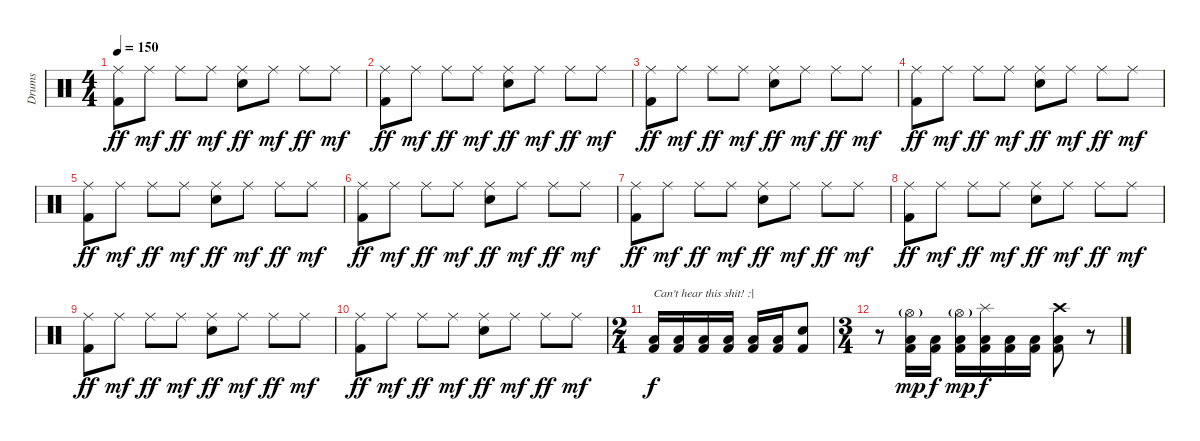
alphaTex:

\track ("Drums" "Drums") {instrument percussion}
\staff {score}
\articulation defaults
\ts (4 4)
\tempo 150
\clef neutral
\ks c
("Ride (middle)" "Kick (hit) 2").8{dy ff} "Ride (middle)".8{dy mf} "Ride (middle)".8{dy ff} "Ride (middle)".8{dy mf} ("Ride (middle)" "Electric Snare (hit)").8{dy ff} "Ride (middle)".8{dy mf} "Ride (middle)".8{dy ff} "Ride (middle)".8{dy mf} |
("Ride (middle)" "Kick (hit) 2").8{dy ff} "Ride (middle)".8{dy mf} "Ride (middle)".8{dy ff} "Ride (middle)".8{dy mf} ("Ride (middle)" "Electric Snare (hit)").8{dy ff} "Ride (middle)".8{dy mf} "Ride (middle)".8{dy ff} "Ride (middle)".8{dy mf} |
("Ride (middle)" "Kick (hit) 2").8{dy ff} "Ride (middle)".8{dy mf} "Ride (middle)".8{dy ff} "Ride (middle)".8{dy mf} ("Ride (middle)" "Electric Snare (hit)").8{dy ff} "Ride (middle)".8{dy mf} "Ride (middle)".8{dy ff} "Ride (middle)".8{dy mf} |
("Ride (middle)" "Kick (hit) 2").8{dy ff} "Ride (middle)".8{dy mf} "Ride (middle)".8{dy ff} "Ride (middle)".8{dy mf} ("Ride (middle)" "Electric Snare (hit)").8{dy ff} "Ride (middle)".8{dy mf} "Ride (middle)".8{dy ff} "Ride (middle)".8{dy mf} |
("Ride (middle)" "Kick (hit) 2").8{dy ff} "Ride (middle)".8{dy mf} "Ride (middle)".8{dy ff} "Ride (middle)".8{dy mf} ("Ride (middle)" "Electric Snare (hit)").8{dy ff} "Ride (middle)".8{dy mf} "Ride (middle)".8{dy ff} "Ride (middle)".8{dy mf} |
("Ride (middle)" "Kick (hit) 2").8{dy ff} "Ride (middle)".8{dy mf} "Ride (middle)".8{dy ff} "Ride (middle)".8{dy mf} ("Ride (middle)" "Electric Snare (hit)").8{dy ff} "Ride (middle)".8{dy mf} "Ride (middle)".8{dy ff} "Ride (middle)".8{dy mf} |
("Ride (middle)" "Kick (hit) 2").8{dy ff} "Ride (middle)".8{dy mf} "Ride (middle)".8{dy ff} "Ride (middle)".8{dy mf} ("Ride (middle)" "Electric Snare (hit)").8{dy ff} "Ride (middle)".8{dy mf} "Ride (middle)".8{dy ff} "Ride (middle)".8{dy mf} |
("Ride (middle)" "Kick (hit) 2").8{dy ff} "Ride (middle)".8{dy mf} "Ride (middle)".8{dy ff} "Ride (middle)".8{dy mf} ("Ride (middle)" "Electric Snare (hit)").8{dy ff} "Ride (middle)".8{dy mf} "Ride (middle)".8{dy ff} "Ride (middle)".8{dy mf} |
("Ride (middle)" "Kick (hit) 2").8{dy ff} "Ride (middle)".8{dy mf} "Ride (middle)".8{dy ff} "Ride (middle)".8{dy mf} ("Ride (middle)" "Electric Snare (hit)").8{dy ff} "Ride (middle)".8{dy mf} "Ride (middle)".8{dy ff} "Ride (middle)".8{dy mf} |
("Ride (middle)" "Kick (hit) 2").8{dy ff} "Ride (middle)".8{dy mf} "Ride (middle)".8{dy ff} "Ride (middle)".8{dy mf} ("Ride (middle)" "Electric Snare (hit)").8{dy ff} "Ride (middle)".8{dy mf} "Ride (middle)".8{dy ff} "Ride (middle)".8{dy mf} |
\ts (2 4)
("Low Floor Tom (hit)" "Kick (hit) 2").16{txt "Can't hear this shit! :|" dy f} ("Low Floor Tom (hit)" "Kick (hit) 2").16 ("Low Floor Tom (hit)" "Kick (hit) 2").16 ("Low Floor Tom (hit)" "Kick (hit) 2").16 ("Low Floor Tom (hit)" "Kick (hit) 2").16 ("Low Floor Tom (hit)" "Kick (hit) 2").16 ("Electric Snare (hit)" "Kick (hit) 2").8 |
\ts (3 4)
r.8 ("Hi-Hat (open)"{g} "Low Floor Tom (hit)" "Kick (hit) 2").16{dy mp} ("Low Floor Tom (hit)" "Kick (hit) 2").16{dy f} ("Hi-Hat (open)"{g} "Low Floor Tom (hit)" "Kick (hit) 2").16{dy mp} ("Splash (hit)" "Low Floor Tom (hit)" "Kick (hit) 2").16{dy f} ("Low Floor Tom (hit)" "Kick (hit) 2").16 ("Low Floor Tom (hit)" "Kick (hit) 2").16 ("Crash high (hit)" "Low Floor Tom (hit)" "Kick (hit) 2").8 r.8
